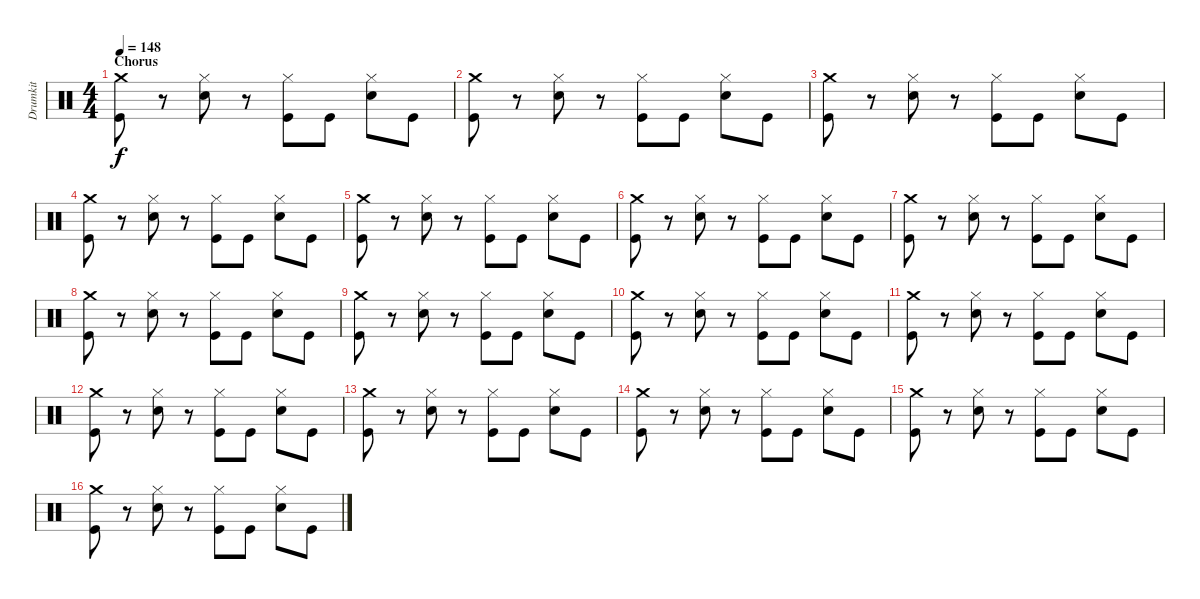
\track ("Drumkit" "Drumkit") {instrument percussion}
\staff {score}
\articulation defaults
\ts (4 4)
\section ("" "Chorus")
\tempo 148
\clef neutral
\ks c
("Crash medium (hit)" "Kick (hit)").8{dy f} r.8 ("Hi-Hat (closed)" "Snare (hit) 2").8 r.8 ("Hi-Hat (closed)" "Kick (hit)").8 "Kick (hit)".8 ("Hi-Hat (closed)" "Snare (hit) 2").8 "Kick (hit)".8 |
("Crash medium (hit)" "Kick (hit)").8 r.8 ("Hi-Hat (closed)" "Snare (hit) 2").8 r.8 ("Hi-Hat (closed)" "Kick (hit)").8 "Kick (hit)".8 ("Hi-Hat (closed)" "Snare (hit) 2").8 "Kick (hit)".8 |
("Crash medium (hit)" "Kick (hit)").8 r.8 ("Hi-Hat (closed)" "Snare (hit) 2").8 r.8 ("Hi-Hat (closed)" "Kick (hit)").8 "Kick (hit)".8 ("Hi-Hat (closed)" "Snare (hit) 2").8 "Kick (hit)".8 |
("Crash medium (hit)" "Kick (hit)").8 r.8 ("Hi-Hat (closed)" "Snare (hit) 2").8 r.8 ("Hi-Hat (closed)" "Kick (hit)").8 "Kick (hit)".8 ("Hi-Hat (closed)" "Snare (hit) 2").8 "Kick (hit)".8 |
("Crash medium (hit)" "Kick (hit)").8 r.8 ("Hi-Hat (closed)" "Snare (hit) 2").8 r.8 ("Hi-Hat (closed)" "Kick (hit)").8 "Kick (hit)".8 ("Hi-Hat (closed)" "Snare (hit) 2").8 "Kick (hit)".8 |
("Crash medium (hit)" "Kick (hit)").8 r.8 ("Hi-Hat (closed)" "Snare (hit) 2").8 r.8 ("Hi-Hat (closed)" "Kick (hit)").8 "Kick (hit)".8 ("Hi-Hat (closed)" "Snare (hit) 2").8 "Kick (hit)".8 |
("Crash medium (hit)" "Kick (hit)").8 r.8 ("Hi-Hat (closed)" "Snare (hit) 2").8 r.8 ("Hi-Hat (closed)" "Kick (hit)").8 "Kick (hit)".8 ("Hi-Hat (closed)" "Snare (hit) 2").8 "Kick (hit)".8 |
("Crash medium (hit)" "Kick (hit)").8 r.8 ("Hi-Hat (closed)" "Snare (hit) 2").8 r.8 ("Hi-Hat (closed)" "Kick (hit)").8 "Kick (hit)".8 ("Hi-Hat (closed)" "Snare (hit) 2").8 "Kick (hit)".8 |
("Crash medium (hit)" "Kick (hit)").8 r.8 ("Hi-Hat (closed)" "Snare (hit) 2").8 r.8 ("Hi-Hat (closed)" "Kick (hit)").8 "Kick (hit)".8 ("Hi-Hat (closed)" "Snare (hit) 2").8 "Kick (hit)".8 |
("Crash medium (hit)" "Kick (hit)").8 r.8 ("Hi-Hat (closed)" "Snare (hit) 2").8 r.8 ("Hi-Hat (closed)" "Kick (hit)").8 "Kick (hit)".8 ("Hi-Hat (closed)" "Snare (hit) 2").8 "Kick (hit)".8 |
("Crash medium (hit)" "Kick (hit)").8 r.8 ("Hi-Hat (closed)" "Snare (hit) 2").8 r.8 ("Hi-Hat (closed)" "Kick (hit)").8 "Kick (hit)".8 ("Hi-Hat (closed)" "Snare (hit) 2").8 "Kick (hit)".8 |
("Crash medium (hit)" "Kick (hit)").8 r.8 ("Hi-Hat (closed)" "Snare (hit) 2").8 r.8 ("Hi-Hat (closed)" "Kick (hit)").8 "Kick (hit)".8 ("Hi-Hat (closed)" "Snare (hit) 2").8 "Kick (hit)".8 |
("Crash medium (hit)" "Kick (hit)").8 r.8 ("Hi-Hat (closed)" "Snare (hit) 2").8 r.8 ("Hi-Hat (closed)" "Kick (hit)").8 "Kick (hit)".8 ("Hi-Hat (closed)" "Snare (hit) 2").8 "Kick (hit)".8 |
("Crash medium (hit)" "Kick (hit)").8 r.8 ("Hi-Hat (closed)" "Snare (hit) 2").8 r.8 ("Hi-Hat (closed)" "Kick (hit)").8 "Kick (hit)".8 ("Hi-Hat (closed)" "Snare (hit) 2").8 "Kick (hit)".8 |
("Crash medium (hit)" "Kick (hit)").8 r.8 ("Hi-Hat (closed)" "Snare (hit) 2").8 r.8 ("Hi-Hat (closed)" "Kick (hit)").8 "Kick (hit)".8 ("Hi-Hat (closed)" "Snare (hit) 2").8 "Kick (hit)".8 |
("Crash medium (hit)" "Kick (hit)").8 r.8 ("Hi-Hat (closed)" "Snare (hit) 2").8 r.8 ("Hi-Hat (closed)" "Kick (hit)").8 "Kick (hit)".8 ("Hi-Hat (closed)" "Snare (hit) 2").8 "Kick (hit)".8
